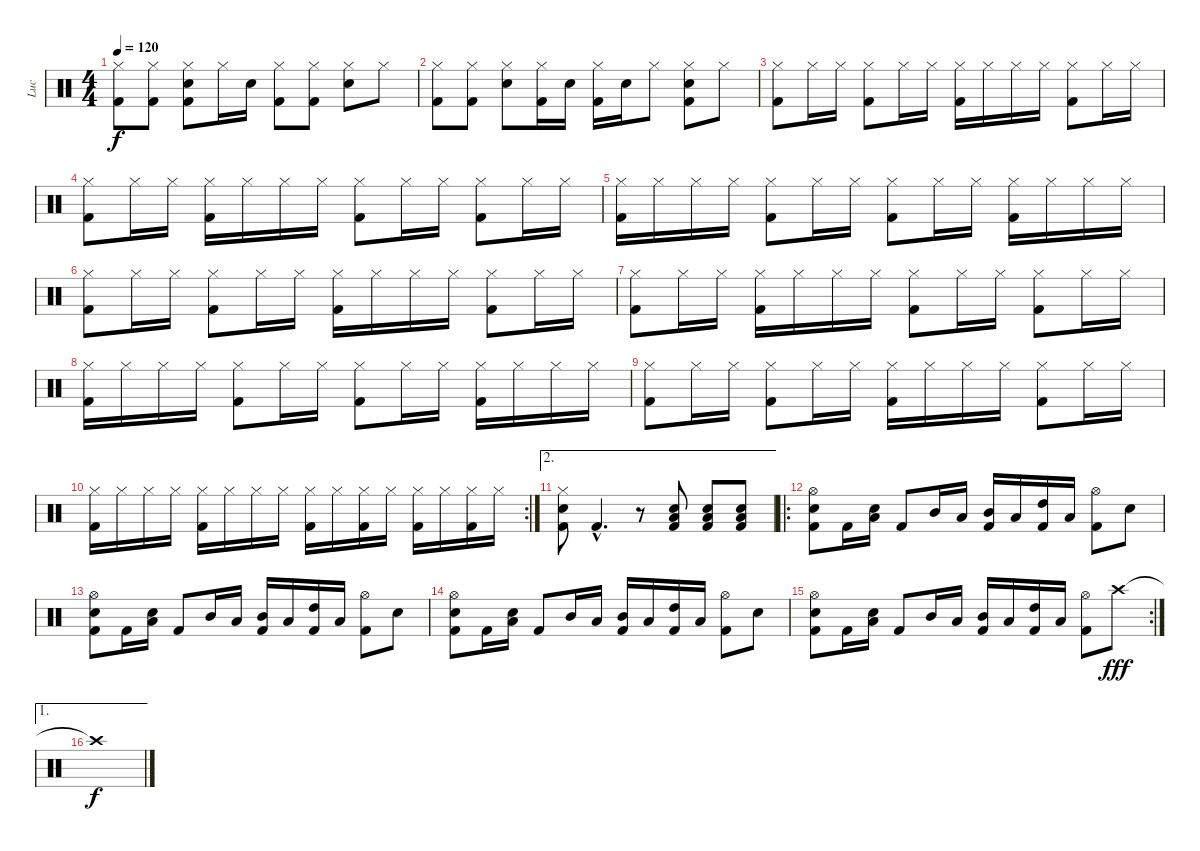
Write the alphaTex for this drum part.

\track ("Luc" "Luc") {instrument percussion}
\staff {score}
\articulation defaults
\ts (4 4)
\tempo 120
\clef neutral
\ks c
("Hi-Hat (closed)" "Kick (hit) 2").8{dy f} ("Hi-Hat (closed)" "Kick (hit) 2").8 ("Hi-Hat (closed)" "Snare (hit) 2" "Kick (hit) 2").8 "Hi-Hat (closed)".16 "Snare (hit) 2"{tr (38 32)}.16 ("Hi-Hat (closed)" "Kick (hit) 2").8 ("Hi-Hat (closed)" "Kick (hit) 2").8 ("Hi-Hat (closed)" "Snare (hit) 2").8 "Hi-Hat (closed)".8 |
("Hi-Hat (closed)" "Kick (hit) 2").8 ("Hi-Hat (closed)" "Kick (hit) 2").8 ("Hi-Hat (closed)" "Snare (hit) 2").8 ("Hi-Hat (closed)" "Kick (hit) 2").16 "Snare (hit) 2"{tr (38 32)}.16 ("Hi-Hat (closed)" "Kick (hit) 2").16 "Snare (hit) 2"{tr (38 32)}.16 "Hi-Hat (closed)".8 ("Hi-Hat (closed)" "Snare (hit) 2" "Kick (hit) 2").8 "Hi-Hat (closed)".8 |
("Hi-Hat (closed)" "Kick (hit) 2").8 "Hi-Hat (closed)".16 "Hi-Hat (closed)".16 ("Hi-Hat (closed)" "Kick (hit) 2").8 "Hi-Hat (closed)".16 "Hi-Hat (closed)".16 ("Hi-Hat (closed)" "Kick (hit) 2").16 "Hi-Hat (closed)".16 "Hi-Hat (closed)".16 "Hi-Hat (closed)".16 ("Hi-Hat (closed)" "Kick (hit) 2").8 "Hi-Hat (closed)".16 "Hi-Hat (closed)".16 |
("Hi-Hat (closed)" "Kick (hit) 2").8 "Hi-Hat (closed)".16 "Hi-Hat (closed)".16 ("Hi-Hat (closed)" "Kick (hit) 2").16 "Hi-Hat (closed)".16 "Hi-Hat (closed)".16 "Hi-Hat (closed)".16 ("Hi-Hat (closed)" "Kick (hit) 2").8 "Hi-Hat (closed)".16 "Hi-Hat (closed)".16 ("Hi-Hat (closed)" "Kick (hit) 2").8 "Hi-Hat (closed)".16 "Hi-Hat (closed)".16 |
("Hi-Hat (closed)" "Kick (hit) 2").16 "Hi-Hat (closed)".16 "Hi-Hat (closed)".16 "Hi-Hat (closed)".16 ("Hi-Hat (closed)" "Kick (hit) 2").8 "Hi-Hat (closed)".16 "Hi-Hat (closed)".16 ("Hi-Hat (closed)" "Kick (hit) 2").8 "Hi-Hat (closed)".16 "Hi-Hat (closed)".16 ("Hi-Hat (closed)" "Kick (hit) 2").16 "Hi-Hat (closed)".16 "Hi-Hat (closed)".16 "Hi-Hat (closed)".16 |
("Hi-Hat (closed)" "Kick (hit) 2").8 "Hi-Hat (closed)".16 "Hi-Hat (closed)".16 ("Hi-Hat (closed)" "Kick (hit) 2").8 "Hi-Hat (closed)".16 "Hi-Hat (closed)".16 ("Hi-Hat (closed)" "Kick (hit) 2").16 "Hi-Hat (closed)".16 "Hi-Hat (closed)".16 "Hi-Hat (closed)".16 ("Hi-Hat (closed)" "Kick (hit) 2").8 "Hi-Hat (closed)".16 "Hi-Hat (closed)".16 |
("Hi-Hat (closed)" "Kick (hit) 2").8 "Hi-Hat (closed)".16 "Hi-Hat (closed)".16 ("Hi-Hat (closed)" "Kick (hit) 2").16 "Hi-Hat (closed)".16 "Hi-Hat (closed)".16 "Hi-Hat (closed)".16 ("Hi-Hat (closed)" "Kick (hit) 2").8 "Hi-Hat (closed)".16 "Hi-Hat (closed)".16 ("Hi-Hat (closed)" "Kick (hit) 2").8 "Hi-Hat (closed)".16 "Hi-Hat (closed)".16 |
("Hi-Hat (closed)" "Kick (hit) 2").16 "Hi-Hat (closed)".16 "Hi-Hat (closed)".16 "Hi-Hat (closed)".16 ("Hi-Hat (closed)" "Kick (hit) 2").8 "Hi-Hat (closed)".16 "Hi-Hat (closed)".16 ("Hi-Hat (closed)" "Kick (hit) 2").8 "Hi-Hat (closed)".16 "Hi-Hat (closed)".16 ("Hi-Hat (closed)" "Kick (hit) 2").16 "Hi-Hat (closed)".16 "Hi-Hat (closed)".16 "Hi-Hat (closed)".16 |
("Hi-Hat (closed)" "Kick (hit) 2").8 "Hi-Hat (closed)".16 "Hi-Hat (closed)".16 ("Hi-Hat (closed)" "Kick (hit) 2").8 "Hi-Hat (closed)".16 "Hi-Hat (closed)".16 ("Hi-Hat (closed)" "Kick (hit) 2").16 "Hi-Hat (closed)".16 "Hi-Hat (closed)".16 "Hi-Hat (closed)".16 ("Hi-Hat (closed)" "Kick (hit) 2").8 "Hi-Hat (closed)".16 "Hi-Hat (closed)".16 |
\rc 2
("Hi-Hat (closed)" "Kick (hit) 2").16 "Hi-Hat (closed)".16 "Hi-Hat (closed)".16 "Hi-Hat (closed)".16 ("Hi-Hat (closed)" "Kick (hit) 2").16 "Hi-Hat (closed)".16 "Hi-Hat (closed)".16 "Hi-Hat (closed)".16 ("Hi-Hat (closed)" "Kick (hit) 2").16 "Hi-Hat (closed)".16 ("Hi-Hat (closed)" "Kick (hit) 2").16 "Hi-Hat (closed)".16 ("Hi-Hat (closed)" "Kick (hit) 2").16 "Hi-Hat (closed)".16 ("Hi-Hat (closed)" "Kick (hit) 2").16 "Hi-Hat (closed)".16 |
\ae 2
("Hi-Hat (closed)" "Snare (hit) 2" "Kick (hit) 2").8 "Kick (hit) 2"{hac}.4{d} r.8 ("Snare (hit) 2" "Low Tom (hit)" "Kick (hit) 2").8 ("Snare (hit) 2" "Low Tom (hit)" "Kick (hit) 2").8 ("Snare (hit) 2" "Low Tom (hit)" "Kick (hit) 2").8 |
\ro
("Hi-Hat (open)" "Snare (hit) 2" "Kick (hit) 2").8 "Kick (hit) 2".16 ("Snare (hit) 2" "Low Tom (hit)").16 "Kick (hit) 2".8 "Mid Tom (hit)".16 "Low Tom (hit)".16 ("Mid Tom (hit)" "Kick (hit) 2").16 "Low Tom (hit)".16 ("High Tom (hit)" "Kick (hit) 2").16 "Low Tom (hit)".16 ("Hi-Hat (open)" "Kick (hit) 2").8 "Snare (hit) 2".8 |
("Hi-Hat (open)" "Snare (hit) 2" "Kick (hit) 2").8 "Kick (hit) 2".16 ("Snare (hit) 2" "Low Tom (hit)").16 "Kick (hit) 2".8 "Mid Tom (hit)".16 "Low Tom (hit)".16 ("Mid Tom (hit)" "Kick (hit) 2").16 "Low Tom (hit)".16 ("High Tom (hit)" "Kick (hit) 2").16 "Low Tom (hit)".16 ("Hi-Hat (open)" "Kick (hit) 2").8 "Snare (hit) 2".8 |
("Hi-Hat (open)" "Snare (hit) 2" "Kick (hit) 2").8 "Kick (hit) 2".16 ("Snare (hit) 2" "Low Tom (hit)").16 "Kick (hit) 2".8 "Mid Tom (hit)".16 "Low Tom (hit)".16 ("Mid Tom (hit)" "Kick (hit) 2").16 "Low Tom (hit)".16 ("High Tom (hit)" "Kick (hit) 2").16 "Low Tom (hit)".16 ("Hi-Hat (open)" "Kick (hit) 2").8 "Snare (hit) 2".8 |
\rc 2
("Hi-Hat (open)" "Snare (hit) 2" "Kick (hit) 2").8 "Kick (hit) 2".16 ("Snare (hit) 2" "Low Tom (hit)").16 "Kick (hit) 2".8 "Mid Tom (hit)".16 "Low Tom (hit)".16 ("Mid Tom (hit)" "Kick (hit) 2").16 "Low Tom (hit)".16 ("High Tom (hit)" "Kick (hit) 2").16 "Low Tom (hit)".16 ("Hi-Hat (open)" "Kick (hit) 2").8 "Crash high (hit)".8{dy fff} |
\ae 1 "Crash high (hit)"{t}.1{dy f}
